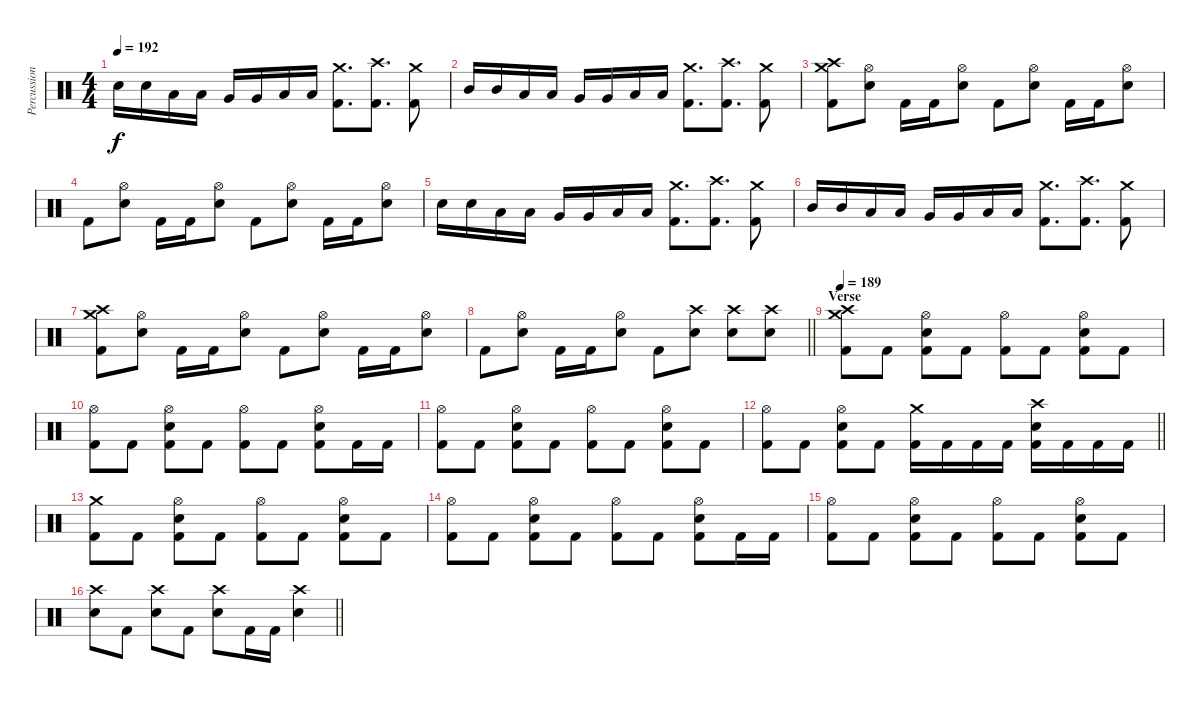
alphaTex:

\track ("Percussion" "Percussion") {instrument percussion}
\staff {score}
\articulation defaults
\ts (4 4)
\tempo 192
\clef neutral
\ks c "Electric Snare (hit)".16{dy f} "Electric Snare (hit)".16 "Low Tom (hit)".16 "Low Tom (hit)".16 "Very Low Tom (hit)".16 "Very Low Tom (hit)".16 "Low Floor Tom (hit)".16 "Low Floor Tom (hit)".16
("Crash medium (hit)" "Kick (hit) 2").8{d} ("Crash high (hit)" "Kick (hit) 2").8{d} ("Crash medium (hit)" "Kick (hit) 2").8 |
"Mid Tom (hit)".16 "Mid Tom (hit)".16 "Low Tom (hit)".16 "Low Tom (hit)".16 "Very Low Tom (hit)".16 "Very Low Tom (hit)".16 "Low Floor Tom (hit)".16 "Low Floor Tom (hit)".16 ("Crash medium (hit)" "Kick (hit) 2").8{d} ("Crash high (hit)" "Kick (hit) 2").8{d} ("Crash medium (hit)" "Kick (hit) 2").8 |
("Crash medium (hit)" "Crash high (hit)" "Kick (hit) 2").8 ("Hi-Hat (open)" "Electric Snare (hit)").8 "Kick (hit) 2".16 "Kick (hit) 2".16 ("Hi-Hat (open)" "Electric Snare (hit)").8 "Kick (hit) 2".8 ("Hi-Hat (open)" "Electric Snare (hit)").8 "Kick (hit) 2".16 "Kick (hit) 2".16 ("Hi-Hat (open)" "Electric Snare (hit)").8 |
"Kick (hit) 2".8 ("Hi-Hat (open)" "Electric Snare (hit)").8 "Kick (hit) 2".16 "Kick (hit) 2".16 ("Hi-Hat (open)" "Electric Snare (hit)").8 "Kick (hit) 2".8 ("Hi-Hat (open)" "Electric Snare (hit)").8 "Kick (hit) 2".16 "Kick (hit) 2".16 ("Hi-Hat (open)" "Electric Snare (hit)").8 |
"Electric Snare (hit)".16 "Electric Snare (hit)".16 "Low Tom (hit)".16 "Low Tom (hit)".16 "Very Low Tom (hit)".16 "Very Low Tom (hit)".16 "Low Floor Tom (hit)".16 "Low Floor Tom (hit)".16 ("Crash medium (hit)" "Kick (hit) 2").8{d} ("Crash high (hit)" "Kick (hit) 2").8{d} ("Crash medium (hit)" "Kick (hit) 2").8 |
"Mid Tom (hit)".16 "Mid Tom (hit)".16 "Low Tom (hit)".16 "Low Tom (hit)".16 "Very Low Tom (hit)".16 "Very Low Tom (hit)".16 "Low Floor Tom (hit)".16 "Low Floor Tom (hit)".16 ("Crash medium (hit)" "Kick (hit) 2").8{d} ("Crash high (hit)" "Kick (hit) 2").8{d} ("Crash medium (hit)" "Kick (hit) 2").8 |
("Crash medium (hit)" "Crash high (hit)" "Kick (hit) 2").8 ("Hi-Hat (open)" "Electric Snare (hit)").8 "Kick (hit) 2".16 "Kick (hit) 2".16 ("Hi-Hat (open)" "Electric Snare (hit)").8 "Kick (hit) 2".8 ("Hi-Hat (open)" "Electric Snare (hit)").8 "Kick (hit) 2".16 "Kick (hit) 2".16 ("Hi-Hat (open)" "Electric Snare (hit)").8 |
\barLineRight lightlight "Kick (hit) 2".8
("Hi-Hat (open)" "Electric Snare (hit)").8 "Kick (hit) 2".16 "Kick (hit) 2".16 ("Hi-Hat (open)" "Electric Snare (hit)").8 "Kick (hit) 2".8 ("Crash high (hit)" "Electric Snare (hit)").8 ("Crash high (hit)" "Electric Snare (hit)").8 ("Crash high (hit)" "Electric Snare (hit)").8 |
\section ("" "Verse")
\tempo 189
("Crash medium (hit)" "Crash high (hit)" "Kick (hit) 2").8 "Kick (hit) 2".8 ("Hi-Hat (open)" "Electric Snare (hit)" "Kick (hit) 2").8 "Kick (hit) 2".8 ("Hi-Hat (open)" "Kick (hit) 2").8 "Kick (hit) 2".8 ("Hi-Hat (open)" "Electric Snare (hit)" "Kick (hit) 2").8 "Kick (hit) 2".8 |
("Hi-Hat (open)" "Kick (hit) 2").8 "Kick (hit) 2".8 ("Hi-Hat (open)" "Electric Snare (hit)" "Kick (hit) 2").8 "Kick (hit) 2".8 ("Hi-Hat (open)" "Kick (hit) 2").8 "Kick (hit) 2".8 ("Hi-Hat (open)" "Electric Snare (hit)" "Kick (hit) 2").8 "Kick (hit) 2".16 "Kick (hit) 2".16 |
("Hi-Hat (open)" "Kick (hit) 2").8 "Kick (hit) 2".8 ("Hi-Hat (open)" "Electric Snare (hit)" "Kick (hit) 2").8 "Kick (hit) 2".8 ("Hi-Hat (open)" "Kick (hit) 2").8 "Kick (hit) 2".8 ("Hi-Hat (open)" "Electric Snare (hit)" "Kick (hit) 2").8 "Kick (hit) 2".8 |
\barLineRight lightlight
("Hi-Hat (open)" "Kick (hit) 2").8 "Kick (hit) 2".8 ("Hi-Hat (open)" "Electric Snare (hit)" "Kick (hit) 2").8 "Kick (hit) 2".8 ("Crash medium (hit)" "Kick (hit) 2").16 "Kick (hit) 2".16 "Kick (hit) 2".16 "Kick (hit) 2".16 ("Crash high (hit)" "Electric Snare (hit)" "Kick (hit) 2").16 "Kick (hit) 2".16 "Kick (hit) 2".16 "Kick (hit) 2".16 |
("Crash medium (hit)" "Kick (hit) 2").8 "Kick (hit) 2".8 ("Hi-Hat (open)" "Electric Snare (hit)" "Kick (hit) 2").8 "Kick (hit) 2".8 ("Hi-Hat (open)" "Kick (hit) 2").8 "Kick (hit) 2".8 ("Hi-Hat (open)" "Electric Snare (hit)" "Kick (hit) 2").8 "Kick (hit) 2".8 |
("Hi-Hat (open)" "Kick (hit) 2").8 "Kick (hit) 2".8 ("Hi-Hat (open)" "Electric Snare (hit)" "Kick (hit) 2").8 "Kick (hit) 2".8 ("Hi-Hat (open)" "Kick (hit) 2").8 "Kick (hit) 2".8 ("Hi-Hat (open)" "Electric Snare (hit)" "Kick (hit) 2").8 "Kick (hit) 2".16 "Kick (hit) 2".16 |
("Hi-Hat (open)" "Kick (hit) 2").8 "Kick (hit) 2".8 ("Hi-Hat (open)" "Electric Snare (hit)" "Kick (hit) 2").8 "Kick (hit) 2".8 ("Hi-Hat (open)" "Kick (hit) 2").8 "Kick (hit) 2".8 ("Hi-Hat (open)" "Electric Snare (hit)" "Kick (hit) 2").8 "Kick (hit) 2".8 |
\barLineRight lightlight
("Crash high (hit)" "Electric Snare (hit)").8 "Kick (hit) 2".8 ("Crash high (hit)" "Electric Snare (hit)").8 "Kick (hit) 2".8 ("Crash high (hit)" "Electric Snare (hit)").8 "Kick (hit) 2".16 "Kick (hit) 2".16 ("Crash high (hit)" "Electric Snare (hit)").4
